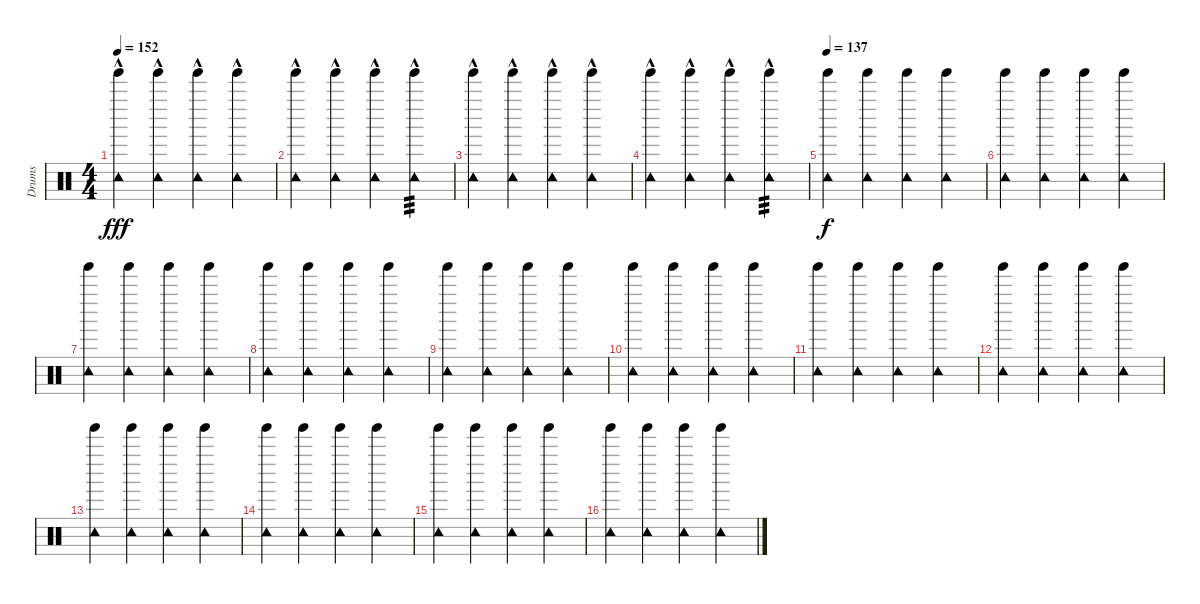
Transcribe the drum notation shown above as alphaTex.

\track ("Drums" "Drums") {instrument percussion}
\staff {score}
\articulation defaults
\ts (4 4)
\tempo 152
\clef neutral
\ks c
("Tambourine (hit)"{hac} "Tinkle Bell (hit)").4{dy fff} ("Tambourine (hit)"{hac} "Tinkle Bell (hit)").4 ("Tambourine (hit)"{hac} "Tinkle Bell (hit)").4 ("Tambourine (hit)"{hac} "Tinkle Bell (hit)").4 |
("Tambourine (hit)"{hac} "Tinkle Bell (hit)").4 ("Tambourine (hit)"{hac} "Tinkle Bell (hit)").4 ("Tambourine (hit)"{hac} "Tinkle Bell (hit)").4 ("Tambourine (hit)"{hac} "Tinkle Bell (hit)").4{tp 3} |
("Tambourine (hit)"{hac} "Tinkle Bell (hit)").4 ("Tambourine (hit)"{hac} "Tinkle Bell (hit)").4 ("Tambourine (hit)"{hac} "Tinkle Bell (hit)").4 ("Tambourine (hit)"{hac} "Tinkle Bell (hit)").4 |
("Tambourine (hit)"{hac} "Tinkle Bell (hit)").4 ("Tambourine (hit)"{hac} "Tinkle Bell (hit)").4 ("Tambourine (hit)"{hac} "Tinkle Bell (hit)").4 ("Tambourine (hit)"{hac} "Tinkle Bell (hit)").4{tp 3} |
\tempo 137
("Tambourine (hit)" "Tinkle Bell (hit)").4{dy f} ("Tambourine (hit)" "Tinkle Bell (hit)").4 ("Tambourine (hit)" "Tinkle Bell (hit)").4 ("Tambourine (hit)" "Tinkle Bell (hit)").4 |
("Tambourine (hit)" "Tinkle Bell (hit)").4 ("Tambourine (hit)" "Tinkle Bell (hit)").4 ("Tambourine (hit)" "Tinkle Bell (hit)").4 ("Tambourine (hit)" "Tinkle Bell (hit)").4 |
("Tambourine (hit)" "Tinkle Bell (hit)").4 ("Tambourine (hit)" "Tinkle Bell (hit)").4 ("Tambourine (hit)" "Tinkle Bell (hit)").4 ("Tambourine (hit)" "Tinkle Bell (hit)").4 |
("Tambourine (hit)" "Tinkle Bell (hit)").4 ("Tambourine (hit)" "Tinkle Bell (hit)").4 ("Tambourine (hit)" "Tinkle Bell (hit)").4 ("Tambourine (hit)" "Tinkle Bell (hit)").4 |
("Tambourine (hit)" "Tinkle Bell (hit)").4 ("Tambourine (hit)" "Tinkle Bell (hit)").4 ("Tambourine (hit)" "Tinkle Bell (hit)").4 ("Tambourine (hit)" "Tinkle Bell (hit)").4 |
("Tambourine (hit)" "Tinkle Bell (hit)").4 ("Tambourine (hit)" "Tinkle Bell (hit)").4 ("Tambourine (hit)" "Tinkle Bell (hit)").4 ("Tambourine (hit)" "Tinkle Bell (hit)").4 |
("Tambourine (hit)" "Tinkle Bell (hit)").4 ("Tambourine (hit)" "Tinkle Bell (hit)").4 ("Tambourine (hit)" "Tinkle Bell (hit)").4 ("Tambourine (hit)" "Tinkle Bell (hit)").4 |
("Tambourine (hit)" "Tinkle Bell (hit)").4 ("Tambourine (hit)" "Tinkle Bell (hit)").4 ("Tambourine (hit)" "Tinkle Bell (hit)").4 ("Tambourine (hit)" "Tinkle Bell (hit)").4 |
("Tambourine (hit)" "Tinkle Bell (hit)").4 ("Tambourine (hit)" "Tinkle Bell (hit)").4 ("Tambourine (hit)" "Tinkle Bell (hit)").4 ("Tambourine (hit)" "Tinkle Bell (hit)").4 |
("Tambourine (hit)" "Tinkle Bell (hit)").4 ("Tambourine (hit)" "Tinkle Bell (hit)").4 ("Tambourine (hit)" "Tinkle Bell (hit)").4 ("Tambourine (hit)" "Tinkle Bell (hit)").4 |
("Tambourine (hit)" "Tinkle Bell (hit)").4 ("Tambourine (hit)" "Tinkle Bell (hit)").4 ("Tambourine (hit)" "Tinkle Bell (hit)").4 ("Tambourine (hit)" "Tinkle Bell (hit)").4 |
("Tambourine (hit)" "Tinkle Bell (hit)").4 ("Tambourine (hit)" "Tinkle Bell (hit)").4 ("Tambourine (hit)" "Tinkle Bell (hit)").4 ("Tambourine (hit)" "Tinkle Bell (hit)").4
